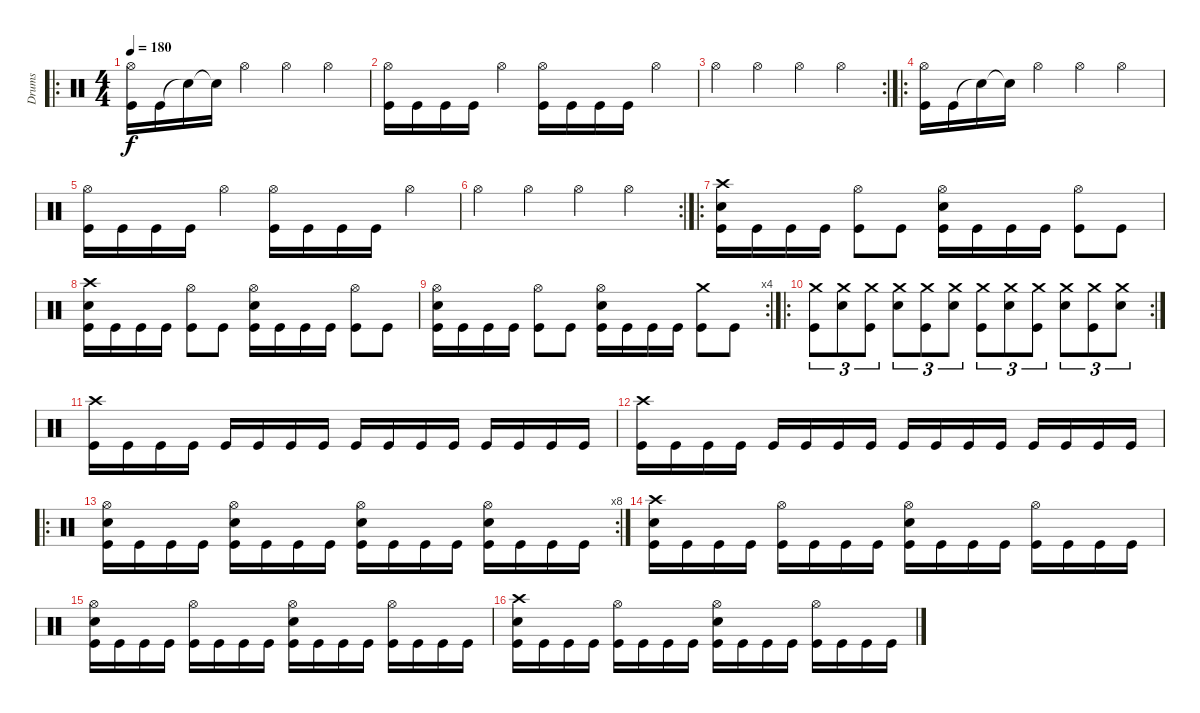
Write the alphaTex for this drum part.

\track ("Drums" "Drums") {instrument percussion}
\staff {score}
\articulation defaults
\ro
\ts (4 4)
\tempo 180
\clef neutral
\ks c
("Hi-Hat (open)" "Kick (hit)").16{dy f} "Kick (hit)".16 "Snare (hit)"{t}.16 "Snare (hit)"{t}.16 "Hi-Hat (open)".4 "Hi-Hat (open)".4 "Hi-Hat (open)".4 |
("Hi-Hat (open)" "Kick (hit)").16 "Kick (hit)".16 "Kick (hit)".16 "Kick (hit)".16 "Hi-Hat (open)".4 ("Hi-Hat (open)" "Kick (hit)").16 "Kick (hit)".16 "Kick (hit)".16 "Kick (hit)".16 "Hi-Hat (open)".4 |
\rc 2 "Hi-Hat (open)".4 "Hi-Hat (open)".4 "Hi-Hat (open)".4 "Hi-Hat (open)".4
|
\ro
("Hi-Hat (open)" "Kick (hit)").16 "Kick (hit)".16 "Snare (hit)"{t}.16 "Snare (hit)"{t}.16 "Hi-Hat (open)".4 "Hi-Hat (open)".4 "Hi-Hat (open)".4 |
("Hi-Hat (open)" "Kick (hit)").16 "Kick (hit)".16 "Kick (hit)".16 "Kick (hit)".16 "Hi-Hat (open)".4 ("Hi-Hat (open)" "Kick (hit)").16 "Kick (hit)".16 "Kick (hit)".16 "Kick (hit)".16 "Hi-Hat (open)".4 |
\rc 2 "Hi-Hat (open)".4 "Hi-Hat (open)".4 "Hi-Hat (open)".4 "Hi-Hat (open)".4
|
\ro
("Crash high (hit)" "Snare (hit) 2" "Kick (hit)").16 "Kick (hit)".16 "Kick (hit)".16 "Kick (hit)".16 ("Hi-Hat (open)" "Kick (hit)").8 "Kick (hit)".8 ("Hi-Hat (open)" "Snare (hit) 2" "Kick (hit)").16 "Kick (hit)".16 "Kick (hit)".16 "Kick (hit)".16 ("Hi-Hat (open)" "Kick (hit)").8 "Kick (hit)".8 |
("Crash high (hit)" "Snare (hit) 2" "Kick (hit)").16 "Kick (hit)".16 "Kick (hit)".16 "Kick (hit)".16 ("Hi-Hat (open)" "Kick (hit)").8 "Kick (hit)".8 ("Hi-Hat (open)" "Snare (hit) 2" "Kick (hit)").16 "Kick (hit)".16 "Kick (hit)".16 "Kick (hit)".16 ("Hi-Hat (open)" "Kick (hit)").8 "Kick (hit)".8 |
\rc 4
("Hi-Hat (open)" "Snare (hit) 2" "Kick (hit)").16 "Kick (hit)".16 "Kick (hit)".16 "Kick (hit)".16 ("Hi-Hat (open)" "Kick (hit)").8 "Kick (hit)".8 ("Hi-Hat (open)" "Snare (hit) 2" "Kick (hit)").16 "Kick (hit)".16 "Kick (hit)".16 "Kick (hit)".16 ("Crash medium (hit)" "Kick (hit)").8 "Kick (hit)".8 |
\ro
\rc 2
("Crash medium (hit)" "Kick (hit)").8{tu (3 2)} ("Crash medium (hit)" "Snare (hit) 2").8{tu (3 2)} ("Crash medium (hit)" "Kick (hit)").8{tu (3 2)} ("Crash medium (hit)" "Snare (hit) 2").8{tu (3 2)} ("Crash medium (hit)" "Kick (hit)").8{tu (3 2)} ("Crash medium (hit)" "Snare (hit) 2").8{tu (3 2)} ("Crash medium (hit)" "Kick (hit)").8{tu (3 2)} ("Crash medium (hit)" "Snare (hit) 2").8{tu (3 2)} ("Crash medium (hit)" "Kick (hit)").8{tu (3 2)} ("Crash medium (hit)" "Snare (hit) 2").8{tu (3 2)} ("Crash medium (hit)" "Kick (hit)").8{tu (3 2)} ("Crash medium (hit)" "Snare (hit) 2").8{tu (3 2)} |
("Crash high (hit)" "Kick (hit)").16 "Kick (hit)".16 "Kick (hit)".16 "Kick (hit)".16 "Kick (hit)".16 "Kick (hit)".16 "Kick (hit)".16 "Kick (hit)".16 "Kick (hit)".16 "Kick (hit)".16 "Kick (hit)".16 "Kick (hit)".16 "Kick (hit)".16 "Kick (hit)".16 "Kick (hit)".16 "Kick (hit)".16 |
("Crash high (hit)" "Kick (hit)").16 "Kick (hit)".16 "Kick (hit)".16 "Kick (hit)".16 "Kick (hit)".16 "Kick (hit)".16 "Kick (hit)".16 "Kick (hit)".16 "Kick (hit)".16 "Kick (hit)".16 "Kick (hit)".16 "Kick (hit)".16 "Kick (hit)".16 "Kick (hit)".16 "Kick (hit)".16 "Kick (hit)".16 |
\ro
\rc 8
("Hi-Hat (open)" "Snare (hit) 2" "Kick (hit)").16 "Kick (hit)".16 "Kick (hit)".16 "Kick (hit)".16 ("Hi-Hat (open)" "Snare (hit) 2" "Kick (hit)").16 "Kick (hit)".16 "Kick (hit)".16 "Kick (hit)".16 ("Hi-Hat (open)" "Snare (hit) 2" "Kick (hit)").16 "Kick (hit)".16 "Kick (hit)".16 "Kick (hit)".16 ("Hi-Hat (open)" "Snare (hit) 2" "Kick (hit)").16 "Kick (hit)".16 "Kick (hit)".16 "Kick (hit)".16 |
("Crash high (hit)" "Snare (hit) 2" "Kick (hit)").16 "Kick (hit)".16 "Kick (hit)".16 "Kick (hit)".16 ("Hi-Hat (open)" "Kick (hit)").16 "Kick (hit)".16 "Kick (hit)".16 "Kick (hit)".16 ("Hi-Hat (open)" "Snare (hit) 2" "Kick (hit)").16 "Kick (hit)".16 "Kick (hit)".16 "Kick (hit)".16 ("Hi-Hat (open)" "Kick (hit)").16 "Kick (hit)".16 "Kick (hit)".16 "Kick (hit)".16 |
("Hi-Hat (open)" "Snare (hit) 2" "Kick (hit)").16 "Kick (hit)".16 "Kick (hit)".16 "Kick (hit)".16 ("Hi-Hat (open)" "Kick (hit)").16 "Kick (hit)".16 "Kick (hit)".16 "Kick (hit)".16 ("Hi-Hat (open)" "Snare (hit) 2" "Kick (hit)").16 "Kick (hit)".16 "Kick (hit)".16 "Kick (hit)".16 ("Hi-Hat (open)" "Kick (hit)").16 "Kick (hit)".16 "Kick (hit)".16 "Kick (hit)".16 |
("Crash high (hit)" "Snare (hit) 2" "Kick (hit)").16 "Kick (hit)".16 "Kick (hit)".16 "Kick (hit)".16 ("Hi-Hat (open)" "Kick (hit)").16 "Kick (hit)".16 "Kick (hit)".16 "Kick (hit)".16 ("Hi-Hat (open)" "Snare (hit) 2" "Kick (hit)").16 "Kick (hit)".16 "Kick (hit)".16 "Kick (hit)".16 ("Hi-Hat (open)" "Kick (hit)").16 "Kick (hit)".16 "Kick (hit)".16 "Kick (hit)".16
